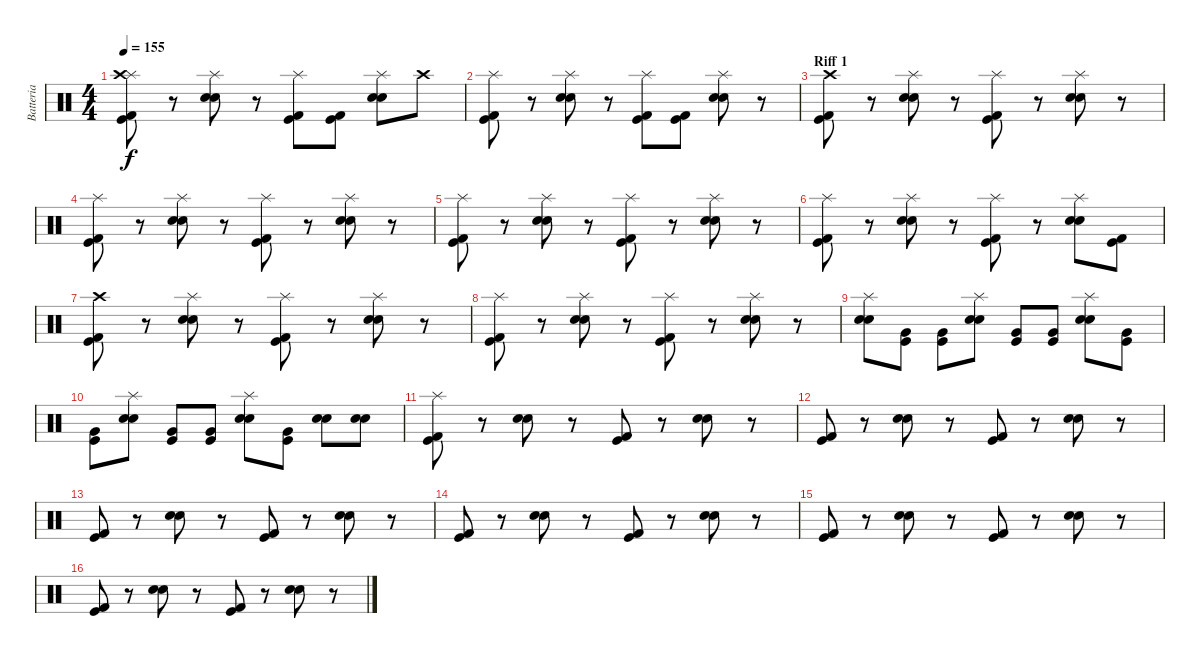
\track ("Batteria" "Batteria") {instrument percussion}
\staff {score}
\articulation defaults
\ts (4 4)
\tempo 155
\clef neutral
\ks c
("Kick (hit)" "Kick (hit) 2" "Splash (hit)" "Crash high (hit)").8{dy f} r.8 ("Electric Snare (hit)" "Snare (hit) 2" "Splash (hit)").8 r.8 ("Kick (hit)" "Kick (hit) 2" "Splash (hit)").8 ("Kick (hit)" "Kick (hit) 2").8 ("Electric Snare (hit)" "Snare (hit) 2" "Splash (hit)").8 "Crash high (hit)".8 |
("Kick (hit)" "Kick (hit) 2" "Splash (hit)").8 r.8 ("Electric Snare (hit)" "Snare (hit) 2" "Splash (hit)").8 r.8 ("Kick (hit)" "Kick (hit) 2" "Splash (hit)").8 ("Kick (hit)" "Kick (hit) 2").8 ("Electric Snare (hit)" "Snare (hit) 2" "Splash (hit)").8 r.8 |
\section ("" "Riff 1")
("Kick (hit)" "Kick (hit) 2" "Crash high (hit)").8 r.8 ("Electric Snare (hit)" "Snare (hit) 2" "Splash (hit)").8 r.8 ("Kick (hit)" "Kick (hit) 2" "Splash (hit)").8 r.8 ("Electric Snare (hit)" "Snare (hit) 2" "Splash (hit)").8 r.8 |
("Kick (hit)" "Kick (hit) 2" "Splash (hit)").8 r.8 ("Electric Snare (hit)" "Snare (hit) 2" "Splash (hit)").8 r.8 ("Kick (hit)" "Kick (hit) 2" "Splash (hit)").8 r.8 ("Electric Snare (hit)" "Snare (hit) 2" "Splash (hit)").8 r.8 |
("Kick (hit)" "Kick (hit) 2" "Splash (hit)").8 r.8 ("Electric Snare (hit)" "Snare (hit) 2" "Splash (hit)").8 r.8 ("Kick (hit)" "Kick (hit) 2" "Splash (hit)").8 r.8 ("Electric Snare (hit)" "Snare (hit) 2" "Splash (hit)").8 r.8 |
("Kick (hit)" "Kick (hit) 2" "Splash (hit)").8 r.8 ("Electric Snare (hit)" "Snare (hit) 2" "Splash (hit)").8 r.8 ("Kick (hit)" "Kick (hit) 2" "Splash (hit)").8 r.8 ("Electric Snare (hit)" "Snare (hit) 2" "Splash (hit)").8 ("Kick (hit)" "Kick (hit) 2").8 |
("Kick (hit)" "Kick (hit) 2" "Crash high (hit)").8 r.8 ("Electric Snare (hit)" "Snare (hit) 2" "Splash (hit)").8 r.8 ("Kick (hit)" "Kick (hit) 2" "Splash (hit)").8 r.8 ("Electric Snare (hit)" "Snare (hit) 2" "Splash (hit)").8 r.8 |
("Kick (hit)" "Kick (hit) 2" "Splash (hit)").8 r.8 ("Electric Snare (hit)" "Snare (hit) 2" "Splash (hit)").8 r.8 ("Kick (hit)" "Kick (hit) 2" "Splash (hit)").8 r.8 ("Electric Snare (hit)" "Snare (hit) 2" "Splash (hit)").8 r.8 |
("Electric Snare (hit)" "Snare (hit) 2" "Splash (hit)").8 ("Kick (hit)" "Very Low Tom (hit)").8 ("Kick (hit)" "Very Low Tom (hit)").8 ("Electric Snare (hit)" "Snare (hit) 2" "Splash (hit)").8 ("Kick (hit)" "Very Low Tom (hit)").8 ("Kick (hit)" "Very Low Tom (hit)").8 ("Electric Snare (hit)" "Snare (hit) 2" "Splash (hit)").8 ("Kick (hit)" "Very Low Tom (hit)").8 |
("Kick (hit)" "Very Low Tom (hit)").8 ("Electric Snare (hit)" "Snare (hit) 2" "Splash (hit)").8 ("Kick (hit)" "Very Low Tom (hit)").8 ("Kick (hit)" "Very Low Tom (hit)").8 ("Electric Snare (hit)" "Snare (hit) 2" "Splash (hit)").8 ("Kick (hit)" "Very Low Tom (hit)").8 ("Electric Snare (hit)" "Snare (hit) 2").8 ("Electric Snare (hit)" "Snare (hit) 2").8 |
("Kick (hit)" "Kick (hit) 2" "Splash (hit)").8 r.8 ("Electric Snare (hit)" "Snare (hit) 2").8 r.8 ("Kick (hit)" "Kick (hit) 2").8 r.8 ("Electric Snare (hit)" "Snare (hit) 2").8 r.8 |
("Kick (hit)" "Kick (hit) 2").8 r.8 ("Electric Snare (hit)" "Snare (hit) 2").8 r.8 ("Kick (hit)" "Kick (hit) 2").8 r.8 ("Electric Snare (hit)" "Snare (hit) 2").8 r.8 |
("Kick (hit)" "Kick (hit) 2").8 r.8 ("Electric Snare (hit)" "Snare (hit) 2").8 r.8 ("Kick (hit)" "Kick (hit) 2").8 r.8 ("Electric Snare (hit)" "Snare (hit) 2").8 r.8 |
("Kick (hit)" "Kick (hit) 2").8 r.8 ("Electric Snare (hit)" "Snare (hit) 2").8 r.8 ("Kick (hit)" "Kick (hit) 2").8 r.8 ("Electric Snare (hit)" "Snare (hit) 2").8 r.8 |
("Kick (hit)" "Kick (hit) 2").8 r.8 ("Electric Snare (hit)" "Snare (hit) 2").8 r.8 ("Kick (hit)" "Kick (hit) 2").8 r.8 ("Electric Snare (hit)" "Snare (hit) 2").8 r.8 |
("Kick (hit)" "Kick (hit) 2").8 r.8 ("Electric Snare (hit)" "Snare (hit) 2").8 r.8 ("Kick (hit)" "Kick (hit) 2").8 r.8 ("Electric Snare (hit)" "Snare (hit) 2").8 r.8
